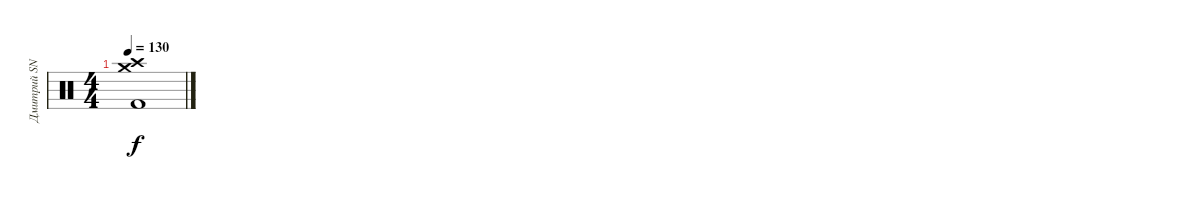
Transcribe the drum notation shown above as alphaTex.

\track ("Дмитрий SNAKE Хакимов" "Дмитрий SN") {instrument percussion}
\staff {score}
\articulation defaults
\ts (4 4)
\tempo 130
\clef neutral
\ks c
("Crash high (hit)" "Crash medium (hit)" "Kick (hit) 2").1{dy f}
